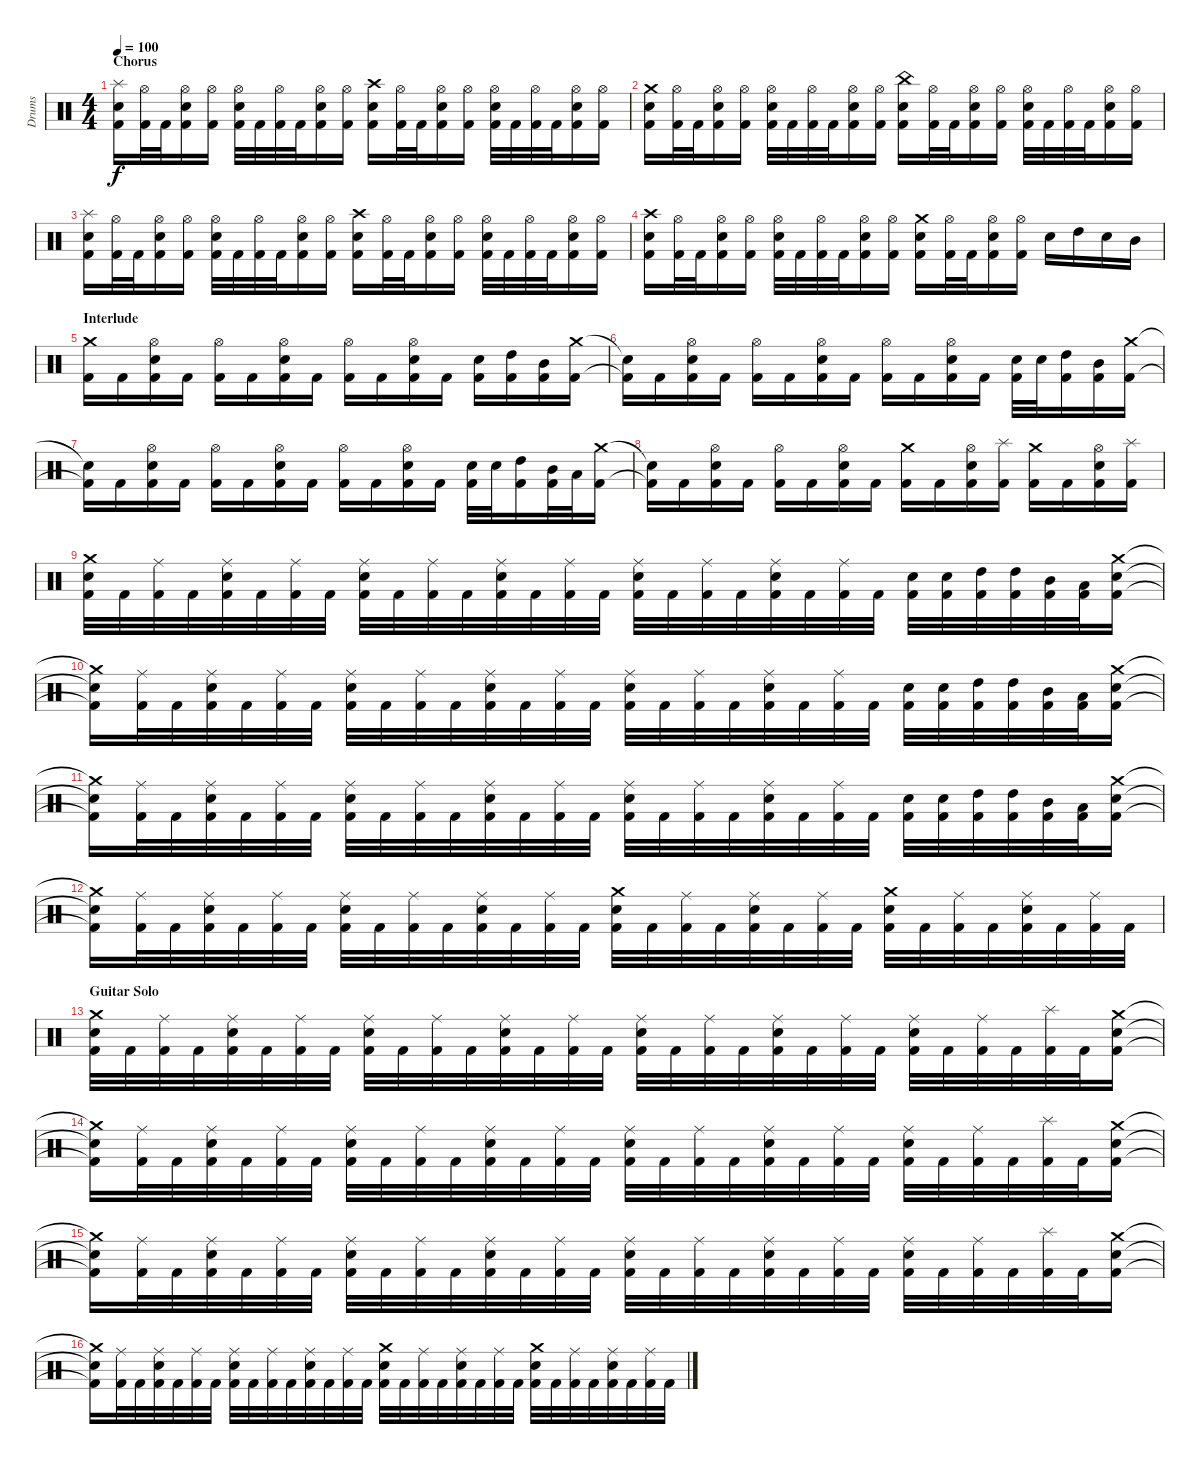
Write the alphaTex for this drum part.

\track ("Drums" "Drums") {instrument percussion}
\staff {score}
\articulation defaults
\ts (4 4)
\section ("" "Chorus")
\tempo 100
\clef neutral
\ks c
("Splash (hit)" "Electric Snare (hit)" "Kick (hit) 2").16{dy f} ("Hi-Hat (open)" "Kick (hit) 2").32 "Kick (hit) 2".32 ("Hi-Hat (open)" "Electric Snare (hit)" "Kick (hit) 2").16 ("Hi-Hat (open)" "Kick (hit) 2").16 ("Hi-Hat (open)" "Electric Snare (hit)" "Kick (hit) 2").32 "Kick (hit) 2".32 ("Hi-Hat (open)" "Kick (hit) 2").32 "Kick (hit) 2".32 ("Hi-Hat (open)" "Electric Snare (hit)" "Kick (hit) 2").16 ("Hi-Hat (open)" "Kick (hit) 2").16 ("Crash high (hit)" "Electric Snare (hit)" "Kick (hit) 2").16 ("Hi-Hat (open)" "Kick (hit) 2").32 "Kick (hit) 2".32 ("Hi-Hat (open)" "Electric Snare (hit)" "Kick (hit) 2").16 ("Hi-Hat (open)" "Kick (hit) 2").16 ("Hi-Hat (open)" "Electric Snare (hit)" "Kick (hit) 2").32 "Kick (hit) 2".32 ("Hi-Hat (open)" "Kick (hit) 2").32 "Kick (hit) 2".32 ("Hi-Hat (open)" "Electric Snare (hit)" "Kick (hit) 2").16 ("Hi-Hat (open)" "Kick (hit) 2").16 |
("Crash medium (hit)" "Electric Snare (hit)" "Kick (hit) 2").16 ("Hi-Hat (open)" "Kick (hit) 2").32 "Kick (hit) 2".32 ("Hi-Hat (open)" "Electric Snare (hit)" "Kick (hit) 2").16 ("Hi-Hat (open)" "Kick (hit) 2").16 ("Hi-Hat (open)" "Electric Snare (hit)" "Kick (hit) 2").32 "Kick (hit) 2".32 ("Hi-Hat (open)" "Kick (hit) 2").32 "Kick (hit) 2".32 ("Hi-Hat (open)" "Electric Snare (hit)" "Kick (hit) 2").16 ("Hi-Hat (open)" "Kick (hit) 2").16 ("China (hit)" "Electric Snare (hit)" "Kick (hit) 2").16 ("Hi-Hat (open)" "Kick (hit) 2").32 "Kick (hit) 2".32 ("Hi-Hat (open)" "Electric Snare (hit)" "Kick (hit) 2").16 ("Hi-Hat (open)" "Kick (hit) 2").16 ("Hi-Hat (open)" "Electric Snare (hit)" "Kick (hit) 2").32 "Kick (hit) 2".32 ("Hi-Hat (open)" "Kick (hit) 2").32 "Kick (hit) 2".32 ("Hi-Hat (open)" "Electric Snare (hit)" "Kick (hit) 2").16 ("Hi-Hat (open)" "Kick (hit) 2").16 |
("Splash (hit)" "Electric Snare (hit)" "Kick (hit) 2").16 ("Hi-Hat (open)" "Kick (hit) 2").32 "Kick (hit) 2".32 ("Hi-Hat (open)" "Electric Snare (hit)" "Kick (hit) 2").16 ("Hi-Hat (open)" "Kick (hit) 2").16 ("Hi-Hat (open)" "Electric Snare (hit)" "Kick (hit) 2").32 "Kick (hit) 2".32 ("Hi-Hat (open)" "Kick (hit) 2").32 "Kick (hit) 2".32 ("Hi-Hat (open)" "Electric Snare (hit)" "Kick (hit) 2").16 ("Hi-Hat (open)" "Kick (hit) 2").16 ("Crash high (hit)" "Electric Snare (hit)" "Kick (hit) 2").16 ("Hi-Hat (open)" "Kick (hit) 2").32 "Kick (hit) 2".32 ("Hi-Hat (open)" "Electric Snare (hit)" "Kick (hit) 2").16 ("Hi-Hat (open)" "Kick (hit) 2").16 ("Hi-Hat (open)" "Electric Snare (hit)" "Kick (hit) 2").32 "Kick (hit) 2".32 ("Hi-Hat (open)" "Kick (hit) 2").32 "Kick (hit) 2".32 ("Hi-Hat (open)" "Electric Snare (hit)" "Kick (hit) 2").16 ("Hi-Hat (open)" "Kick (hit) 2").16 |
("Crash high (hit)" "Electric Snare (hit)" "Kick (hit) 2").16 ("Hi-Hat (open)" "Kick (hit) 2").32 "Kick (hit) 2".32 ("Hi-Hat (open)" "Electric Snare (hit)" "Kick (hit) 2").16 ("Hi-Hat (open)" "Kick (hit) 2").16 ("Hi-Hat (open)" "Electric Snare (hit)" "Kick (hit) 2").32 "Kick (hit) 2".32 ("Hi-Hat (open)" "Kick (hit) 2").32 "Kick (hit) 2".32 ("Hi-Hat (open)" "Electric Snare (hit)" "Kick (hit) 2").16 ("Hi-Hat (open)" "Kick (hit) 2").16 ("Crash medium (hit)" "Electric Snare (hit)" "Kick (hit) 2").16 ("Hi-Hat (open)" "Kick (hit) 2").32 "Kick (hit) 2".32 ("Hi-Hat (open)" "Electric Snare (hit)" "Kick (hit) 2").16 ("Hi-Hat (open)" "Kick (hit) 2").16 "Electric Snare (hit)".16 "High Tom (hit)".16 "Electric Snare (hit)".16 "Mid Tom (hit)".16 |
\section ("" "Interlude")
("Crash medium (hit)" "Kick (hit) 2").16 "Kick (hit) 2".16 ("Hi-Hat (open)" "Electric Snare (hit)" "Kick (hit) 2").16 "Kick (hit) 2".16 ("Hi-Hat (open)" "Kick (hit) 2").16 "Kick (hit) 2".16 ("Hi-Hat (open)" "Electric Snare (hit)" "Kick (hit) 2").16 "Kick (hit) 2".16 ("Hi-Hat (open)" "Kick (hit) 2").16 "Kick (hit) 2".16 ("Hi-Hat (open)" "Electric Snare (hit)" "Kick (hit) 2").16 "Kick (hit) 2".16 ("Electric Snare (hit)" "Kick (hit) 2").16 ("High Tom (hit)" "Kick (hit) 2").16 ("Mid Tom (hit)" "Kick (hit) 2").16 ("Crash medium (hit)" "Kick (hit) 2").16 |
("Snare (hit)"{t} "Kick (hit) 2"{t}).16 "Kick (hit) 2".16 ("Hi-Hat (open)" "Electric Snare (hit)" "Kick (hit) 2").16 "Kick (hit) 2".16 ("Hi-Hat (open)" "Kick (hit) 2").16 "Kick (hit) 2".16 ("Hi-Hat (open)" "Electric Snare (hit)" "Kick (hit) 2").16 "Kick (hit) 2".16 ("Hi-Hat (open)" "Kick (hit) 2").16 "Kick (hit) 2".16 ("Hi-Hat (open)" "Electric Snare (hit)" "Kick (hit) 2").16 "Kick (hit) 2".16 ("Electric Snare (hit)" "Kick (hit) 2").32 "Electric Snare (hit)".32 ("High Tom (hit)" "Kick (hit) 2").16 ("Mid Tom (hit)" "Kick (hit) 2").16 ("Crash medium (hit)" "Kick (hit) 2").16 |
("Snare (hit)"{t} "Kick (hit) 2"{t}).16 "Kick (hit) 2".16 ("Hi-Hat (open)" "Electric Snare (hit)" "Kick (hit) 2").16 "Kick (hit) 2".16 ("Hi-Hat (open)" "Kick (hit) 2").16 "Kick (hit) 2".16 ("Hi-Hat (open)" "Electric Snare (hit)" "Kick (hit) 2").16 "Kick (hit) 2".16 ("Hi-Hat (open)" "Kick (hit) 2").16 "Kick (hit) 2".16 ("Hi-Hat (open)" "Electric Snare (hit)" "Kick (hit) 2").16 "Kick (hit) 2".16 ("Electric Snare (hit)" "Kick (hit) 2").32 "Electric Snare (hit)".32 ("High Tom (hit)" "Kick (hit) 2").16 ("Mid Tom (hit)" "Kick (hit) 2").32 "Low Tom (hit)".32 ("Crash medium (hit)" "Kick (hit) 2").16 |
("Snare (hit)"{t} "Kick (hit) 2"{t}).16 "Kick (hit) 2".16 ("Hi-Hat (open)" "Electric Snare (hit)" "Kick (hit) 2").16 "Kick (hit) 2".16 ("Hi-Hat (open)" "Kick (hit) 2").16 "Kick (hit) 2".16 ("Hi-Hat (open)" "Electric Snare (hit)" "Kick (hit) 2").16 "Kick (hit) 2".16 ("Crash medium (hit)" "Kick (hit) 2").16 "Kick (hit) 2".16 ("Hi-Hat (open)" "Electric Snare (hit)" "Kick (hit) 2").16 ("Splash (hit)" "Kick (hit) 2").16 ("Crash medium (hit)" "Kick (hit) 2").16 "Kick (hit) 2".16 ("Hi-Hat (open)" "Electric Snare (hit)" "Kick (hit) 2").16 ("Splash (hit)" "Kick (hit) 2").16 |
("Crash medium (hit)" "Electric Snare (hit)" "Kick (hit) 2").32 "Kick (hit) 2".32 ("Ride (middle)" "Kick (hit) 2").32 "Kick (hit) 2".32 ("Ride (middle)" "Electric Snare (hit)" "Kick (hit) 2").32 "Kick (hit) 2".32 ("Ride (middle)" "Kick (hit) 2").32 "Kick (hit) 2".32 ("Ride (middle)" "Electric Snare (hit)" "Kick (hit) 2").32 "Kick (hit) 2".32 ("Ride (middle)" "Kick (hit) 2").32 "Kick (hit) 2".32 ("Ride (middle)" "Electric Snare (hit)" "Kick (hit) 2").32 "Kick (hit) 2".32 ("Ride (middle)" "Kick (hit) 2").32 "Kick (hit) 2".32 ("Ride (middle)" "Electric Snare (hit)" "Kick (hit) 2").32 "Kick (hit) 2".32 ("Ride (middle)" "Kick (hit) 2").32 "Kick (hit) 2".32 ("Ride (middle)" "Electric Snare (hit)" "Kick (hit) 2").32 "Kick (hit) 2".32 ("Ride (middle)" "Kick (hit) 2").32 "Kick (hit) 2".32 ("Electric Snare (hit)" "Kick (hit) 2").32 ("Electric Snare (hit)" "Kick (hit) 2").32 ("High Tom (hit)" "Kick (hit) 2").32 ("High Tom (hit)" "Kick (hit) 2").32 ("Mid Tom (hit)" "Kick (hit) 2").32 ("Low Tom (hit)" "Kick (hit) 2").32 ("Crash medium (hit)" "Electric Snare (hit)" "Kick (hit) 2").16 |
("Crash medium (hit)"{t} "Electric Snare (hit)"{t} "Kick (hit) 2"{t}).16 ("Ride (middle)" "Kick (hit) 2").32 "Kick (hit) 2".32 ("Ride (middle)" "Electric Snare (hit)" "Kick (hit) 2").32 "Kick (hit) 2".32 ("Ride (middle)" "Kick (hit) 2").32 "Kick (hit) 2".32 ("Ride (middle)" "Electric Snare (hit)" "Kick (hit) 2").32 "Kick (hit) 2".32 ("Ride (middle)" "Kick (hit) 2").32 "Kick (hit) 2".32 ("Ride (middle)" "Electric Snare (hit)" "Kick (hit) 2").32 "Kick (hit) 2".32 ("Ride (middle)" "Kick (hit) 2").32 "Kick (hit) 2".32 ("Ride (middle)" "Electric Snare (hit)" "Kick (hit) 2").32 "Kick (hit) 2".32 ("Ride (middle)" "Kick (hit) 2").32 "Kick (hit) 2".32 ("Ride (middle)" "Electric Snare (hit)" "Kick (hit) 2").32 "Kick (hit) 2".32 ("Ride (middle)" "Kick (hit) 2").32 "Kick (hit) 2".32 ("Electric Snare (hit)" "Kick (hit) 2").32 ("Electric Snare (hit)" "Kick (hit) 2").32 ("High Tom (hit)" "Kick (hit) 2").32 ("High Tom (hit)" "Kick (hit) 2").32 ("Mid Tom (hit)" "Kick (hit) 2").32 ("Low Tom (hit)" "Kick (hit) 2").32 ("Crash medium (hit)" "Electric Snare (hit)" "Kick (hit) 2").16 |
("Crash medium (hit)"{t} "Electric Snare (hit)"{t} "Kick (hit) 2"{t}).16 ("Ride (middle)" "Kick (hit) 2").32 "Kick (hit) 2".32 ("Ride (middle)" "Electric Snare (hit)" "Kick (hit) 2").32 "Kick (hit) 2".32 ("Ride (middle)" "Kick (hit) 2").32 "Kick (hit) 2".32 ("Ride (middle)" "Electric Snare (hit)" "Kick (hit) 2").32 "Kick (hit) 2".32 ("Ride (middle)" "Kick (hit) 2").32 "Kick (hit) 2".32 ("Ride (middle)" "Electric Snare (hit)" "Kick (hit) 2").32 "Kick (hit) 2".32 ("Ride (middle)" "Kick (hit) 2").32 "Kick (hit) 2".32 ("Ride (middle)" "Electric Snare (hit)" "Kick (hit) 2").32 "Kick (hit) 2".32 ("Ride (middle)" "Kick (hit) 2").32 "Kick (hit) 2".32 ("Ride (middle)" "Electric Snare (hit)" "Kick (hit) 2").32 "Kick (hit) 2".32 ("Ride (middle)" "Kick (hit) 2").32 "Kick (hit) 2".32 ("Electric Snare (hit)" "Kick (hit) 2").32 ("Electric Snare (hit)" "Kick (hit) 2").32 ("High Tom (hit)" "Kick (hit) 2").32 ("High Tom (hit)" "Kick (hit) 2").32 ("Mid Tom (hit)" "Kick (hit) 2").32 ("Low Tom (hit)" "Kick (hit) 2").32 ("Crash medium (hit)" "Electric Snare (hit)" "Kick (hit) 2").16 |
("Crash medium (hit)"{t} "Electric Snare (hit)"{t} "Kick (hit) 2"{t}).16 ("Ride (middle)" "Kick (hit) 2").32 "Kick (hit) 2".32 ("Ride (middle)" "Electric Snare (hit)" "Kick (hit) 2").32 "Kick (hit) 2".32 ("Ride (middle)" "Kick (hit) 2").32 "Kick (hit) 2".32 ("Ride (middle)" "Electric Snare (hit)" "Kick (hit) 2").32 "Kick (hit) 2".32 ("Ride (middle)" "Kick (hit) 2").32 "Kick (hit) 2".32 ("Ride (middle)" "Electric Snare (hit)" "Kick (hit) 2").32 "Kick (hit) 2".32 ("Ride (middle)" "Kick (hit) 2").32 "Kick (hit) 2".32 ("Crash medium (hit)" "Electric Snare (hit)" "Kick (hit) 2").32 "Kick (hit) 2".32 ("Ride (middle)" "Kick (hit) 2").32 "Kick (hit) 2".32 ("Ride (middle)" "Electric Snare (hit)" "Kick (hit) 2").32 "Kick (hit) 2".32 ("Ride (middle)" "Kick (hit) 2").32 "Kick (hit) 2".32 ("Crash medium (hit)" "Electric Snare (hit)" "Kick (hit) 2").32 "Kick (hit) 2".32 ("Ride (middle)" "Kick (hit) 2").32 "Kick (hit) 2".32 ("Ride (middle)" "Electric Snare (hit)" "Kick (hit) 2").32 "Kick (hit) 2".32 ("Ride (middle)" "Kick (hit) 2").32 "Kick (hit) 2".32 |
\section ("" "Guitar Solo")
("Crash medium (hit)" "Electric Snare (hit)" "Kick (hit) 2").32 "Kick (hit) 2".32 ("Ride (middle)" "Kick (hit) 2").32 "Kick (hit) 2".32 ("Ride (middle)" "Electric Snare (hit)" "Kick (hit) 2").32 "Kick (hit) 2".32 ("Ride (middle)" "Kick (hit) 2").32 "Kick (hit) 2".32 ("Ride (middle)" "Electric Snare (hit)" "Kick (hit) 2").32 "Kick (hit) 2".32 ("Ride (middle)" "Kick (hit) 2").32 "Kick (hit) 2".32 ("Ride (middle)" "Electric Snare (hit)" "Kick (hit) 2").32 "Kick (hit) 2".32 ("Ride (middle)" "Kick (hit) 2").32 "Kick (hit) 2".32 ("Ride (middle)" "Electric Snare (hit)" "Kick (hit) 2").32 "Kick (hit) 2".32 ("Ride (middle)" "Kick (hit) 2").32 "Kick (hit) 2".32 ("Ride (middle)" "Electric Snare (hit)" "Kick (hit) 2").32 "Kick (hit) 2".32 ("Ride (middle)" "Kick (hit) 2").32 "Kick (hit) 2".32 ("Ride (middle)" "Electric Snare (hit)" "Kick (hit) 2").32 "Kick (hit) 2".32 ("Ride (middle)" "Kick (hit) 2").32 "Kick (hit) 2".32 ("Splash (hit)" "Kick (hit) 2").32 "Kick (hit) 2".32 ("Crash medium (hit)" "Electric Snare (hit)" "Kick (hit) 2").16 |
("Crash medium (hit)"{t} "Electric Snare (hit)"{t} "Kick (hit) 2"{t}).16 ("Ride (middle)" "Kick (hit) 2").32 "Kick (hit) 2".32 ("Ride (middle)" "Electric Snare (hit)" "Kick (hit) 2").32 "Kick (hit) 2".32 ("Ride (middle)" "Kick (hit) 2").32 "Kick (hit) 2".32 ("Ride (middle)" "Electric Snare (hit)" "Kick (hit) 2").32 "Kick (hit) 2".32 ("Ride (middle)" "Kick (hit) 2").32 "Kick (hit) 2".32 ("Ride (middle)" "Electric Snare (hit)" "Kick (hit) 2").32 "Kick (hit) 2".32 ("Ride (middle)" "Kick (hit) 2").32 "Kick (hit) 2".32 ("Ride (middle)" "Electric Snare (hit)" "Kick (hit) 2").32 "Kick (hit) 2".32 ("Ride (middle)" "Kick (hit) 2").32 "Kick (hit) 2".32 ("Ride (middle)" "Electric Snare (hit)" "Kick (hit) 2").32 "Kick (hit) 2".32 ("Ride (middle)" "Kick (hit) 2").32 "Kick (hit) 2".32 ("Ride (middle)" "Electric Snare (hit)" "Kick (hit) 2").32 "Kick (hit) 2".32 ("Ride (middle)" "Kick (hit) 2").32 "Kick (hit) 2".32 ("Splash (hit)" "Kick (hit) 2").32 "Kick (hit) 2".32 ("Crash medium (hit)" "Electric Snare (hit)" "Kick (hit) 2").16 |
("Crash medium (hit)"{t} "Electric Snare (hit)"{t} "Kick (hit) 2"{t}).16 ("Ride (middle)" "Kick (hit) 2").32 "Kick (hit) 2".32 ("Ride (middle)" "Electric Snare (hit)" "Kick (hit) 2").32 "Kick (hit) 2".32 ("Ride (middle)" "Kick (hit) 2").32 "Kick (hit) 2".32 ("Ride (middle)" "Electric Snare (hit)" "Kick (hit) 2").32 "Kick (hit) 2".32 ("Ride (middle)" "Kick (hit) 2").32 "Kick (hit) 2".32 ("Ride (middle)" "Electric Snare (hit)" "Kick (hit) 2").32 "Kick (hit) 2".32 ("Ride (middle)" "Kick (hit) 2").32 "Kick (hit) 2".32 ("Ride (middle)" "Electric Snare (hit)" "Kick (hit) 2").32 "Kick (hit) 2".32 ("Ride (middle)" "Kick (hit) 2").32 "Kick (hit) 2".32 ("Ride (middle)" "Electric Snare (hit)" "Kick (hit) 2").32 "Kick (hit) 2".32 ("Ride (middle)" "Kick (hit) 2").32 "Kick (hit) 2".32 ("Ride (middle)" "Electric Snare (hit)" "Kick (hit) 2").32 "Kick (hit) 2".32 ("Ride (middle)" "Kick (hit) 2").32 "Kick (hit) 2".32 ("Splash (hit)" "Kick (hit) 2").32 "Kick (hit) 2".32 ("Crash medium (hit)" "Electric Snare (hit)" "Kick (hit) 2").16 |
("Crash medium (hit)"{t} "Electric Snare (hit)"{t} "Kick (hit) 2"{t}).16 ("Ride (middle)" "Kick (hit) 2").32 "Kick (hit) 2".32 ("Ride (middle)" "Electric Snare (hit)" "Kick (hit) 2").32 "Kick (hit) 2".32 ("Ride (middle)" "Kick (hit) 2").32 "Kick (hit) 2".32 ("Ride (middle)" "Electric Snare (hit)" "Kick (hit) 2").32 "Kick (hit) 2".32 ("Ride (middle)" "Kick (hit) 2").32 "Kick (hit) 2".32 ("Ride (middle)" "Electric Snare (hit)" "Kick (hit) 2").32 "Kick (hit) 2".32 ("Ride (middle)" "Kick (hit) 2").32 "Kick (hit) 2".32 ("Crash medium (hit)" "Electric Snare (hit)" "Kick (hit) 2").32 "Kick (hit) 2".32 ("Ride (middle)" "Kick (hit) 2").32 "Kick (hit) 2".32 ("Ride (middle)" "Electric Snare (hit)" "Kick (hit) 2").32 "Kick (hit) 2".32 ("Ride (middle)" "Kick (hit) 2").32 "Kick (hit) 2".32 ("Crash medium (hit)" "Electric Snare (hit)" "Kick (hit) 2").32 "Kick (hit) 2".32 ("Ride (middle)" "Kick (hit) 2").32 "Kick (hit) 2".32 ("Ride (middle)" "Electric Snare (hit)" "Kick (hit) 2").32 "Kick (hit) 2".32 ("Ride (middle)" "Kick (hit) 2").32 "Kick (hit) 2".32
